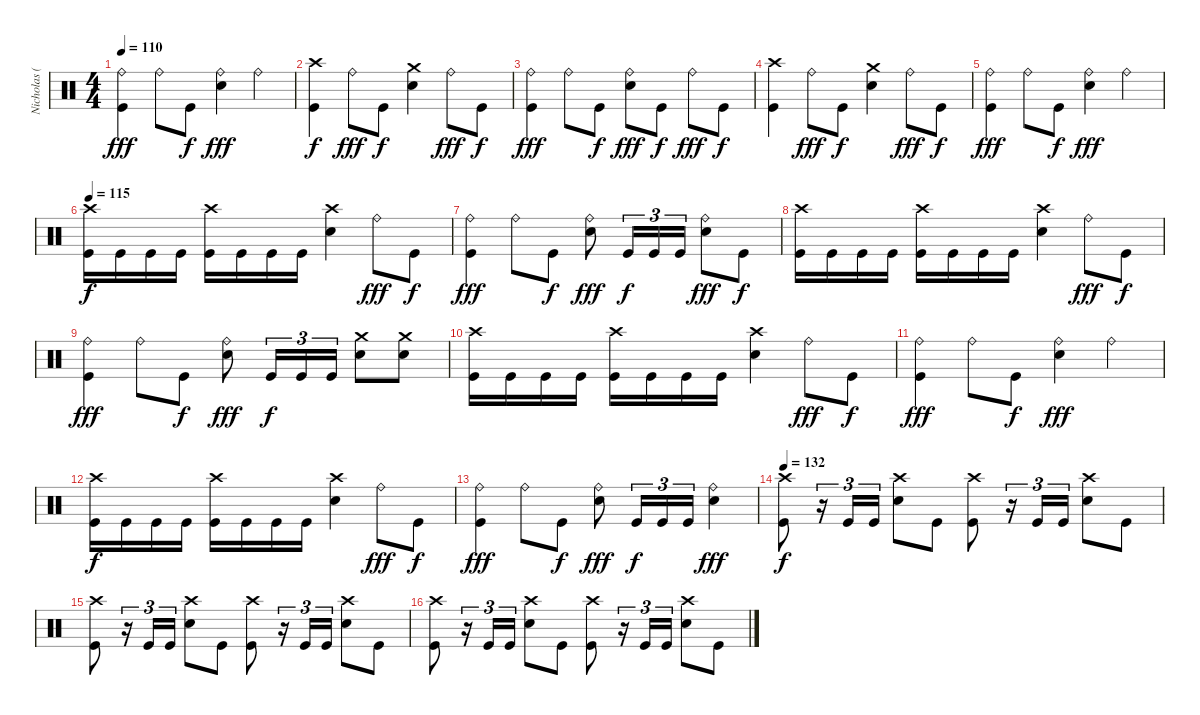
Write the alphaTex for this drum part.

\track ("Nicholas (Drums)" "Nicholas (") {instrument percussion}
\staff {score}
\articulation defaults
\ts (4 4)
\tempo 110
\clef neutral
\ks c
("Ride (bell)" "Kick (hit)").4{dy fff} "Ride (bell)".8 "Kick (hit)".8{dy f} ("Ride (bell)" "Electric Snare (hit)").4{dy fff} "Ride (bell)".4 |
("Crash high (hit)" "Kick (hit)").4{dy f} "Ride (bell)".8{dy fff} "Kick (hit)".8{dy f} ("Crash medium (hit)" "Electric Snare (hit)").4 "Ride (bell)".8{dy fff} "Kick (hit)".8{dy f} |
("Ride (bell)" "Kick (hit)").4{dy fff} "Ride (bell)".8 "Kick (hit)".8{dy f} ("Ride (bell)" "Electric Snare (hit)").8{dy fff} "Kick (hit)".8{dy f} "Ride (bell)".8{dy fff} "Kick (hit)".8{dy f} |
("Crash high (hit)" "Kick (hit)").4 "Ride (bell)".8{dy fff} "Kick (hit)".8{dy f} ("Crash medium (hit)" "Electric Snare (hit)").4 "Ride (bell)".8{dy fff} "Kick (hit)".8{dy f} |
("Ride (bell)" "Kick (hit)").4{dy fff} "Ride (bell)".8 "Kick (hit)".8{dy f} ("Ride (bell)" "Electric Snare (hit)").4{dy fff} "Ride (bell)".4 |
\tempo 115
("Crash high (hit)" "Kick (hit)").16{dy f} "Kick (hit)".16 "Kick (hit)".16 "Kick (hit)".16 ("Crash high (hit)" "Kick (hit)").16 "Kick (hit)".16 "Kick (hit)".16 "Kick (hit)".16 ("Crash high (hit)" "Electric Snare (hit)").4 "Ride (bell)".8{dy fff} "Kick (hit)".8{dy f} |
("Ride (bell)" "Kick (hit)").4{dy fff} "Ride (bell)".8 "Kick (hit)".8{dy f} ("Ride (bell)" "Electric Snare (hit)").8{dy fff} "Kick (hit)".16{tu (3 2) dy f} "Kick (hit)".16{tu (3 2)} "Kick (hit)".16{tu (3 2)} ("Ride (bell)" "Electric Snare (hit)").8{dy fff} "Kick (hit)".8{dy f} |
("Crash high (hit)" "Kick (hit)").16 "Kick (hit)".16 "Kick (hit)".16 "Kick (hit)".16 ("Crash high (hit)" "Kick (hit)").16 "Kick (hit)".16 "Kick (hit)".16 "Kick (hit)".16 ("Crash high (hit)" "Electric Snare (hit)").4 "Ride (bell)".8{dy fff} "Kick (hit)".8{dy f} |
("Ride (bell)" "Kick (hit)").4{dy fff} "Ride (bell)".8 "Kick (hit)".8{dy f} ("Ride (bell)" "Electric Snare (hit)").8{dy fff} "Kick (hit)".16{tu (3 2) dy f} "Kick (hit)".16{tu (3 2)} "Kick (hit)".16{tu (3 2)} ("Crash medium (hit)" "Electric Snare (hit)").8 ("Crash medium (hit)" "Electric Snare (hit)").8 |
("Crash high (hit)" "Kick (hit)").16 "Kick (hit)".16 "Kick (hit)".16 "Kick (hit)".16 ("Crash high (hit)" "Kick (hit)").16 "Kick (hit)".16 "Kick (hit)".16 "Kick (hit)".16 ("Crash high (hit)" "Electric Snare (hit)").4 "Ride (bell)".8{dy fff} "Kick (hit)".8{dy f} |
("Ride (bell)" "Kick (hit)").4{dy fff} "Ride (bell)".8 "Kick (hit)".8{dy f} ("Ride (bell)" "Electric Snare (hit)").4{dy fff} "Ride (bell)".4 |
("Crash high (hit)" "Kick (hit)").16{dy f} "Kick (hit)".16 "Kick (hit)".16 "Kick (hit)".16 ("Crash high (hit)" "Kick (hit)").16 "Kick (hit)".16 "Kick (hit)".16 "Kick (hit)".16 ("Crash high (hit)" "Electric Snare (hit)").4 "Ride (bell)".8{dy fff} "Kick (hit)".8{dy f} |
("Ride (bell)" "Kick (hit)").4{dy fff} "Ride (bell)".8 "Kick (hit)".8{dy f} ("Ride (bell)" "Electric Snare (hit)").8{dy fff} "Kick (hit)".16{tu (3 2) dy f} "Kick (hit)".16{tu (3 2)} "Kick (hit)".16{tu (3 2)} ("Ride (bell)" "Electric Snare (hit)").4{dy fff} |
\tempo 132
("Crash high (hit)" "Kick (hit)").8{dy f} r.16{tu (3 2)} "Kick (hit)".16{tu (3 2)} "Kick (hit)".16{tu (3 2)} ("Crash high (hit)" "Electric Snare (hit)").8 "Kick (hit)".8 ("Crash high (hit)" "Kick (hit)").8 r.16{tu (3 2)} "Kick (hit)".16{tu (3 2)} "Kick (hit)".16{tu (3 2)} ("Crash high (hit)" "Electric Snare (hit)").8 "Kick (hit)".8 |
("Crash high (hit)" "Kick (hit)").8 r.16{tu (3 2)} "Kick (hit)".16{tu (3 2)} "Kick (hit)".16{tu (3 2)} ("Crash high (hit)" "Electric Snare (hit)").8 "Kick (hit)".8 ("Crash high (hit)" "Kick (hit)").8 r.16{tu (3 2)} "Kick (hit)".16{tu (3 2)} "Kick (hit)".16{tu (3 2)} ("Crash high (hit)" "Electric Snare (hit)").8 "Kick (hit)".8 |
("Crash high (hit)" "Kick (hit)").8 r.16{tu (3 2)} "Kick (hit)".16{tu (3 2)} "Kick (hit)".16{tu (3 2)} ("Crash high (hit)" "Electric Snare (hit)").8 "Kick (hit)".8 ("Crash high (hit)" "Kick (hit)").8 r.16{tu (3 2)} "Kick (hit)".16{tu (3 2)} "Kick (hit)".16{tu (3 2)} ("Crash high (hit)" "Electric Snare (hit)").8 "Kick (hit)".8
